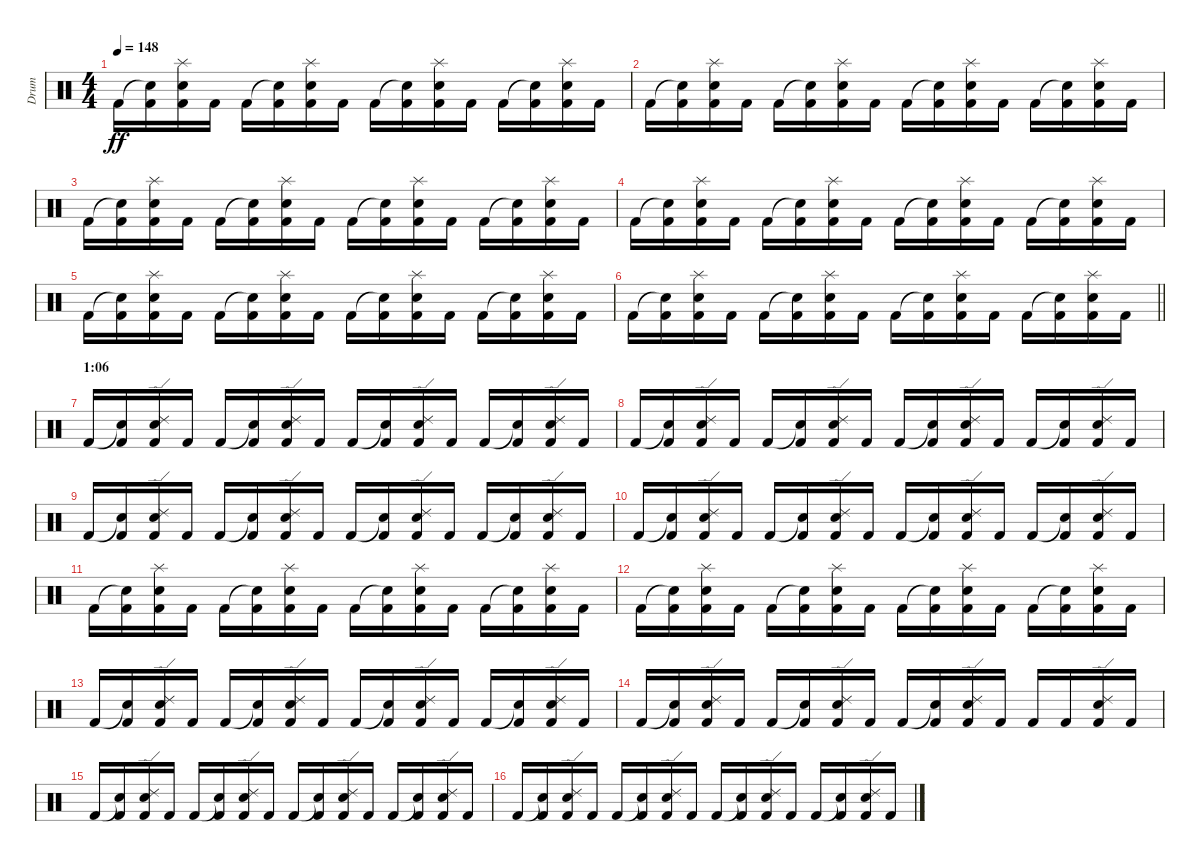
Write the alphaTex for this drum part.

\track ("Drum" "Drum") {instrument percussion}
\staff {score}
\articulation defaults
\ts (4 4)
\tempo 148
\clef neutral
\ks c "Kick (hit) 2".16{dy ff}
("Snare (hit)"{t} "Kick (hit) 2").16 ("Splash (hit)" "Snare (hit) 2" "Kick (hit) 2").16 "Kick (hit) 2".16 "Kick (hit) 2".16 ("Snare (hit)"{t} "Kick (hit) 2").16 ("Splash (hit)" "Snare (hit) 2" "Kick (hit) 2").16 "Kick (hit) 2".16 "Kick (hit) 2".16 ("Snare (hit)"{t} "Kick (hit) 2").16 ("Splash (hit)" "Snare (hit) 2" "Kick (hit) 2").16 "Kick (hit) 2".16 "Kick (hit) 2".16 ("Snare (hit)"{t} "Kick (hit) 2").16 ("Splash (hit)" "Snare (hit) 2" "Kick (hit) 2").16 "Kick (hit) 2".16 |
"Kick (hit) 2".16 ("Snare (hit)"{t} "Kick (hit) 2").16 ("Splash (hit)" "Snare (hit) 2" "Kick (hit) 2").16 "Kick (hit) 2".16 "Kick (hit) 2".16 ("Snare (hit)"{t} "Kick (hit) 2").16 ("Splash (hit)" "Snare (hit) 2" "Kick (hit) 2").16 "Kick (hit) 2".16 "Kick (hit) 2".16 ("Snare (hit)"{t} "Kick (hit) 2").16 ("Splash (hit)" "Snare (hit) 2" "Kick (hit) 2").16 "Kick (hit) 2".16 "Kick (hit) 2".16 ("Snare (hit)"{t} "Kick (hit) 2").16 ("Splash (hit)" "Snare (hit) 2" "Kick (hit) 2").16 "Kick (hit) 2".16 |
"Kick (hit) 2".16 ("Snare (hit)"{t} "Kick (hit) 2").16 ("Splash (hit)" "Snare (hit) 2" "Kick (hit) 2").16 "Kick (hit) 2".16 "Kick (hit) 2".16 ("Snare (hit)"{t} "Kick (hit) 2").16 ("Splash (hit)" "Snare (hit) 2" "Kick (hit) 2").16 "Kick (hit) 2".16 "Kick (hit) 2".16 ("Snare (hit)"{t} "Kick (hit) 2").16 ("Splash (hit)" "Snare (hit) 2" "Kick (hit) 2").16 "Kick (hit) 2".16 "Kick (hit) 2".16 ("Snare (hit)"{t} "Kick (hit) 2").16 ("Splash (hit)" "Snare (hit) 2" "Kick (hit) 2").16 "Kick (hit) 2".16 |
"Kick (hit) 2".16 ("Snare (hit)"{t} "Kick (hit) 2").16 ("Splash (hit)" "Snare (hit) 2" "Kick (hit) 2").16 "Kick (hit) 2".16 "Kick (hit) 2".16 ("Snare (hit)"{t} "Kick (hit) 2").16 ("Splash (hit)" "Snare (hit) 2" "Kick (hit) 2").16 "Kick (hit) 2".16 "Kick (hit) 2".16 ("Snare (hit)"{t} "Kick (hit) 2").16 ("Splash (hit)" "Snare (hit) 2" "Kick (hit) 2").16 "Kick (hit) 2".16 "Kick (hit) 2".16 ("Snare (hit)"{t} "Kick (hit) 2").16 ("Splash (hit)" "Snare (hit) 2" "Kick (hit) 2").16 "Kick (hit) 2".16 |
"Kick (hit) 2".16 ("Snare (hit)"{t} "Kick (hit) 2").16 ("Splash (hit)" "Snare (hit) 2" "Kick (hit) 2").16 "Kick (hit) 2".16 "Kick (hit) 2".16 ("Snare (hit)"{t} "Kick (hit) 2").16 ("Splash (hit)" "Snare (hit) 2" "Kick (hit) 2").16 "Kick (hit) 2".16 "Kick (hit) 2".16 ("Snare (hit)"{t} "Kick (hit) 2").16 ("Splash (hit)" "Snare (hit) 2" "Kick (hit) 2").16 "Kick (hit) 2".16 "Kick (hit) 2".16 ("Snare (hit)"{t} "Kick (hit) 2").16 ("Splash (hit)" "Snare (hit) 2" "Kick (hit) 2").16 "Kick (hit) 2".16 |
\barLineRight lightlight "Kick (hit) 2".16
("Snare (hit)"{t} "Kick (hit) 2").16 ("Splash (hit)" "Snare (hit) 2" "Kick (hit) 2").16 "Kick (hit) 2".16 "Kick (hit) 2".16 ("Snare (hit)"{t} "Kick (hit) 2").16 ("Splash (hit)" "Snare (hit) 2" "Kick (hit) 2").16 "Kick (hit) 2".16 "Kick (hit) 2".16 ("Snare (hit)"{t} "Kick (hit) 2").16 ("Splash (hit)" "Snare (hit) 2" "Kick (hit) 2").16 "Kick (hit) 2".16 "Kick (hit) 2".16 ("Snare (hit)"{t} "Kick (hit) 2").16 ("Splash (hit)" "Snare (hit) 2" "Kick (hit) 2").16 "Kick (hit) 2".16 |
\section ("" "1:06")
"Kick (hit) 2".16 ("Snare (hit)"{t} "Kick (hit) 2").16 ("Ride (edge) 2" "Snare (hit) 2" "Kick (hit) 2").16 "Kick (hit) 2".16 "Kick (hit) 2".16 ("Snare (hit)"{t} "Kick (hit) 2").16 ("Ride (edge) 2" "Snare (hit) 2" "Kick (hit) 2").16 "Kick (hit) 2".16 "Kick (hit) 2".16 ("Snare (hit)"{t} "Kick (hit) 2").16 ("Ride (edge) 2" "Snare (hit) 2" "Kick (hit) 2").16 "Kick (hit) 2".16 "Kick (hit) 2".16 ("Snare (hit)"{t} "Kick (hit) 2").16 ("Ride (edge) 2" "Snare (hit) 2" "Kick (hit) 2").16 "Kick (hit) 2".16 |
"Kick (hit) 2".16 ("Snare (hit)"{t} "Kick (hit) 2").16 ("Ride (edge) 2" "Snare (hit) 2" "Kick (hit) 2").16 "Kick (hit) 2".16 "Kick (hit) 2".16 ("Snare (hit)"{t} "Kick (hit) 2").16 ("Ride (edge) 2" "Snare (hit) 2" "Kick (hit) 2").16 "Kick (hit) 2".16 "Kick (hit) 2".16 ("Snare (hit)"{t} "Kick (hit) 2").16 ("Ride (edge) 2" "Snare (hit) 2" "Kick (hit) 2").16 "Kick (hit) 2".16 "Kick (hit) 2".16 ("Snare (hit)"{t} "Kick (hit) 2").16 ("Ride (edge) 2" "Snare (hit) 2" "Kick (hit) 2").16 "Kick (hit) 2".16 |
"Kick (hit) 2".16 ("Snare (hit)"{t} "Kick (hit) 2").16 ("Ride (edge) 2" "Snare (hit) 2" "Kick (hit) 2").16 "Kick (hit) 2".16 "Kick (hit) 2".16 ("Snare (hit)"{t} "Kick (hit) 2").16 ("Ride (edge) 2" "Snare (hit) 2" "Kick (hit) 2").16 "Kick (hit) 2".16 "Kick (hit) 2".16 ("Snare (hit)"{t} "Kick (hit) 2").16 ("Ride (edge) 2" "Snare (hit) 2" "Kick (hit) 2").16 "Kick (hit) 2".16 "Kick (hit) 2".16 ("Snare (hit)"{t} "Kick (hit) 2").16 ("Ride (edge) 2" "Snare (hit) 2" "Kick (hit) 2").16 "Kick (hit) 2".16 |
"Kick (hit) 2".16 ("Snare (hit)"{t} "Kick (hit) 2").16 ("Ride (edge) 2" "Snare (hit) 2" "Kick (hit) 2").16 "Kick (hit) 2".16 "Kick (hit) 2".16 ("Snare (hit)"{t} "Kick (hit) 2").16 ("Ride (edge) 2" "Snare (hit) 2" "Kick (hit) 2").16 "Kick (hit) 2".16 "Kick (hit) 2".16 ("Snare (hit)"{t} "Kick (hit) 2").16 ("Ride (edge) 2" "Snare (hit) 2" "Kick (hit) 2").16 "Kick (hit) 2".16 "Kick (hit) 2".16 ("Snare (hit)"{t} "Kick (hit) 2").16 ("Ride (edge) 2" "Snare (hit) 2" "Kick (hit) 2").16 "Kick (hit) 2".16 |
"Kick (hit) 2".16 ("Snare (hit)"{t} "Kick (hit) 2").16 ("Splash (hit)" "Snare (hit) 2" "Kick (hit) 2").16 "Kick (hit) 2".16 "Kick (hit) 2".16 ("Snare (hit)"{t} "Kick (hit) 2").16 ("Splash (hit)" "Snare (hit) 2" "Kick (hit) 2").16 "Kick (hit) 2".16 "Kick (hit) 2".16 ("Snare (hit)"{t} "Kick (hit) 2").16 ("Splash (hit)" "Snare (hit) 2" "Kick (hit) 2").16 "Kick (hit) 2".16 "Kick (hit) 2".16 ("Snare (hit)"{t} "Kick (hit) 2").16 ("Splash (hit)" "Snare (hit) 2" "Kick (hit) 2").16 "Kick (hit) 2".16 |
"Kick (hit) 2".16 ("Snare (hit)"{t} "Kick (hit) 2").16 ("Splash (hit)" "Snare (hit) 2" "Kick (hit) 2").16 "Kick (hit) 2".16 "Kick (hit) 2".16 ("Snare (hit)"{t} "Kick (hit) 2").16 ("Splash (hit)" "Snare (hit) 2" "Kick (hit) 2").16 "Kick (hit) 2".16 "Kick (hit) 2".16 ("Snare (hit)"{t} "Kick (hit) 2").16 ("Splash (hit)" "Snare (hit) 2" "Kick (hit) 2").16 "Kick (hit) 2".16 "Kick (hit) 2".16 ("Snare (hit)"{t} "Kick (hit) 2").16 ("Splash (hit)" "Snare (hit) 2" "Kick (hit) 2").16 "Kick (hit) 2".16 |
"Kick (hit) 2".16 ("Snare (hit)"{t} "Kick (hit) 2").16 ("Ride (edge) 2" "Snare (hit) 2" "Kick (hit) 2").16 "Kick (hit) 2".16 "Kick (hit) 2".16 ("Snare (hit)"{t} "Kick (hit) 2").16 ("Ride (edge) 2" "Snare (hit) 2" "Kick (hit) 2").16 "Kick (hit) 2".16 "Kick (hit) 2".16 ("Snare (hit)"{t} "Kick (hit) 2").16 ("Ride (edge) 2" "Snare (hit) 2" "Kick (hit) 2").16 "Kick (hit) 2".16 "Kick (hit) 2".16 ("Snare (hit)"{t} "Kick (hit) 2").16 ("Ride (edge) 2" "Snare (hit) 2" "Kick (hit) 2").16 "Kick (hit) 2".16 |
"Kick (hit) 2".16 ("Snare (hit)"{t} "Kick (hit) 2").16 ("Ride (edge) 2" "Snare (hit) 2" "Kick (hit) 2").16 "Kick (hit) 2".16 "Kick (hit) 2".16 ("Snare (hit)"{t} "Kick (hit) 2").16 ("Ride (edge) 2" "Snare (hit) 2" "Kick (hit) 2").16 "Kick (hit) 2".16 "Kick (hit) 2".16 ("Snare (hit)"{t} "Kick (hit) 2").16 ("Ride (edge) 2" "Snare (hit) 2" "Kick (hit) 2").16 "Kick (hit) 2".16 "Kick (hit) 2".16 "Kick (hit) 2".16 ("Ride (edge) 2" "Snare (hit) 2" "Kick (hit) 2").16 "Kick (hit) 2".16 |
"Kick (hit) 2".16 ("Snare (hit)"{t} "Kick (hit) 2").16 ("Ride (edge) 2" "Snare (hit) 2" "Kick (hit) 2").16 "Kick (hit) 2".16 "Kick (hit) 2".16 ("Snare (hit)"{t} "Kick (hit) 2").16 ("Ride (edge) 2" "Snare (hit) 2" "Kick (hit) 2").16 "Kick (hit) 2".16 "Kick (hit) 2".16 ("Snare (hit)"{t} "Kick (hit) 2").16 ("Ride (edge) 2" "Snare (hit) 2" "Kick (hit) 2").16 "Kick (hit) 2".16 "Kick (hit) 2".16 ("Snare (hit)"{t} "Kick (hit) 2").16 ("Ride (edge) 2" "Snare (hit) 2" "Kick (hit) 2").16 "Kick (hit) 2".16 |
"Kick (hit) 2".16 ("Snare (hit)"{t} "Kick (hit) 2").16 ("Ride (edge) 2" "Snare (hit) 2" "Kick (hit) 2").16 "Kick (hit) 2".16 "Kick (hit) 2".16 ("Snare (hit)"{t} "Kick (hit) 2").16 ("Ride (edge) 2" "Snare (hit) 2" "Kick (hit) 2").16 "Kick (hit) 2".16 "Kick (hit) 2".16 ("Snare (hit)"{t} "Kick (hit) 2").16 ("Ride (edge) 2" "Snare (hit) 2" "Kick (hit) 2").16 "Kick (hit) 2".16 "Kick (hit) 2".16 ("Snare (hit)"{t} "Kick (hit) 2").16 ("Ride (edge) 2" "Snare (hit) 2" "Kick (hit) 2").16 "Kick (hit) 2".16
